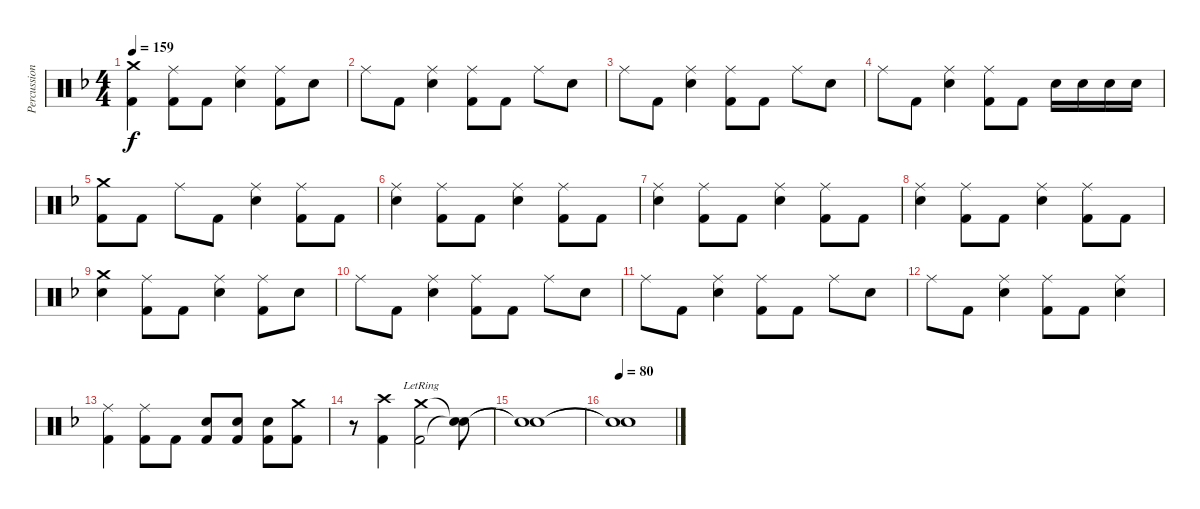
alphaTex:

\track ("Percussion" "Percussion") {instrument percussion}
\staff {score}
\articulation defaults
\ts (4 4)
\tempo 159
\clef neutral
\ks f
("Crash medium (hit)" "Kick (hit) 2").4{dy f} ("Ride (middle)" "Kick (hit) 2").8 "Kick (hit) 2".8 ("Ride (middle)" "Electric Snare (hit)").4 ("Ride (middle)" "Kick (hit) 2").8 "Electric Snare (hit)".8 |
"Ride (middle)".8 "Kick (hit) 2".8 ("Ride (middle)" "Electric Snare (hit)").4 ("Ride (middle)" "Kick (hit) 2").8 "Kick (hit) 2".8 "Ride (middle)".8 "Electric Snare (hit)".8 |
"Ride (middle)".8 "Kick (hit) 2".8 ("Ride (middle)" "Electric Snare (hit)").4 ("Ride (middle)" "Kick (hit) 2").8 "Kick (hit) 2".8 "Ride (middle)".8 "Electric Snare (hit)".8 |
"Ride (middle)".8 "Kick (hit) 2".8 ("Ride (middle)" "Electric Snare (hit)").4 ("Ride (middle)" "Kick (hit) 2").8 "Kick (hit) 2".8 "Electric Snare (hit)".16 "Electric Snare (hit)".16 "Electric Snare (hit)".16 "Electric Snare (hit)".16 |
("Crash medium (hit)" "Kick (hit) 2").8 "Kick (hit) 2".8 "Ride (middle)".8 "Kick (hit) 2".8 ("Ride (middle)" "Electric Snare (hit)").4 ("Ride (middle)" "Kick (hit) 2").8 "Kick (hit) 2".8 |
("Ride (middle)" "Electric Snare (hit)").4 ("Ride (middle)" "Kick (hit) 2").8 "Kick (hit) 2".8 ("Ride (middle)" "Electric Snare (hit)").4 ("Ride (middle)" "Kick (hit) 2").8 "Kick (hit) 2".8 |
("Ride (middle)" "Electric Snare (hit)").4 ("Ride (middle)" "Kick (hit) 2").8 "Kick (hit) 2".8 ("Ride (middle)" "Electric Snare (hit)").4 ("Ride (middle)" "Kick (hit) 2").8 "Kick (hit) 2".8 |
("Ride (middle)" "Electric Snare (hit)").4 ("Ride (middle)" "Kick (hit) 2").8 "Kick (hit) 2".8 ("Ride (middle)" "Electric Snare (hit)").4 ("Ride (middle)" "Kick (hit) 2").8 "Kick (hit) 2".8 |
("Crash medium (hit)" "Electric Snare (hit)").4 ("Ride (middle)" "Kick (hit) 2").8 "Kick (hit) 2".8 ("Ride (middle)" "Electric Snare (hit)").4 ("Ride (middle)" "Kick (hit) 2").8 "Electric Snare (hit)".8 |
"Ride (middle)".8 "Kick (hit) 2".8 ("Ride (middle)" "Electric Snare (hit)").4 ("Ride (middle)" "Kick (hit) 2").8 "Kick (hit) 2".8 "Ride (middle)".8 "Electric Snare (hit)".8 |
"Ride (middle)".8 "Kick (hit) 2".8 ("Ride (middle)" "Electric Snare (hit)").4 ("Ride (middle)" "Kick (hit) 2").8 "Kick (hit) 2".8 "Ride (middle)".8 "Electric Snare (hit)".8 |
"Ride (middle)".8 "Kick (hit) 2".8 ("Ride (middle)" "Electric Snare (hit)").4 ("Ride (middle)" "Kick (hit) 2").8 "Kick (hit) 2".8 ("Ride (middle)" "Electric Snare (hit)").4 |
("Ride (middle)" "Kick (hit) 2").4 ("Ride (middle)" "Kick (hit) 2").8 "Kick (hit) 2".8 ("Electric Snare (hit)" "Kick (hit) 2").8 ("Electric Snare (hit)" "Kick (hit) 2").8 ("Electric Snare (hit)" "Kick (hit) 2").8 ("Crash medium (hit)" "Kick (hit) 2").8 |
r.8 ("Crash high (hit)" "Kick (hit) 2").4 ("Crash medium (hit)"{lr} "Kick (hit) 2"{lr}).2 ("Snare (hit)"{t} "Snare (hit)"{t}).8 |
("Snare (hit)"{t} "Snare (hit)"{t}).1 |
\tempo 80
("Snare (hit)"{t} "Snare (hit)"{t}).1
